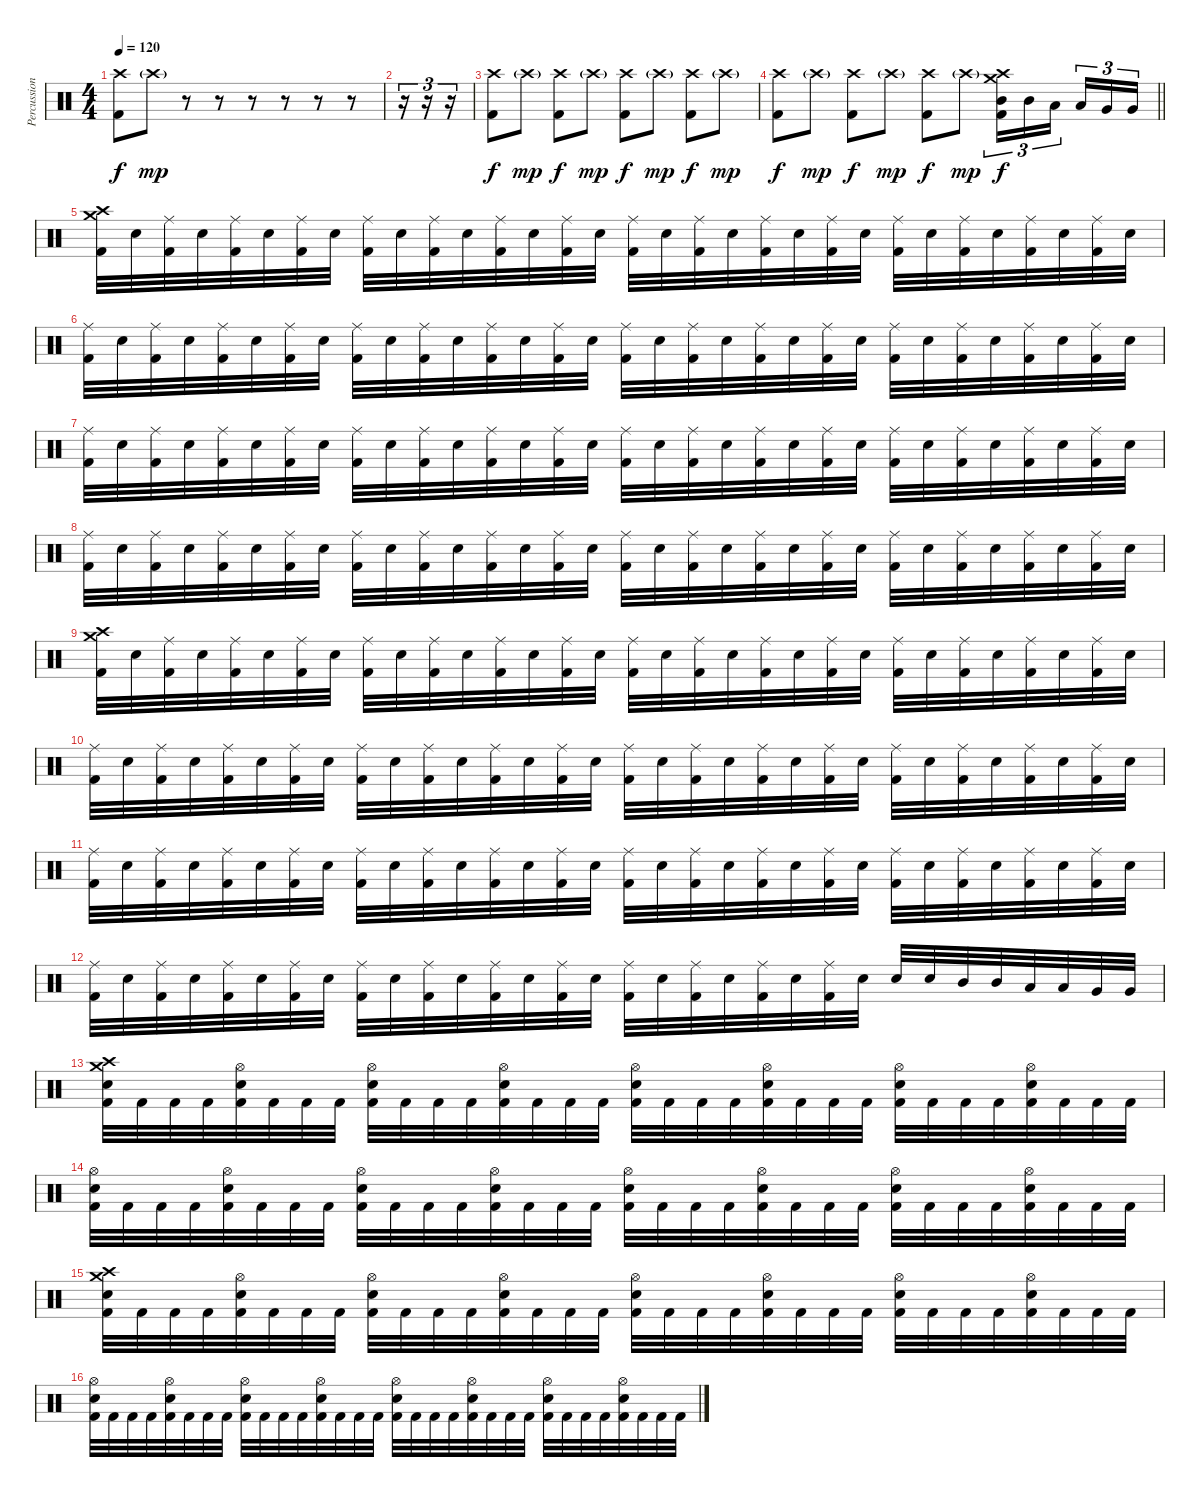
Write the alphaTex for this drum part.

\track ("Percussion" "Percussion") {instrument percussion}
\staff {score}
\articulation defaults
\ts (4 4)
\tempo 120
\clef neutral
\ks c
("Crash high (hit)" "Kick (hit) 2").8{dy f} "Crash high (hit)"{g}.8{dy mp} r.8 r.8 r.8 r.8 r.8 r.8 |
r.16{tu (3 2)} r.16{tu (3 2)} r.16{tu (3 2)} |
("Crash high (hit)" "Kick (hit) 2").8{dy f} "Crash high (hit)"{g}.8{dy mp} ("Crash high (hit)" "Kick (hit) 2").8{dy f} "Crash high (hit)"{g}.8{dy mp} ("Crash high (hit)" "Kick (hit) 2").8{dy f} "Crash high (hit)"{g}.8{dy mp} ("Crash high (hit)" "Kick (hit) 2").8{dy f} "Crash high (hit)"{g}.8{dy mp} |
\barLineRight lightlight
("Crash high (hit)" "Kick (hit) 2").8{dy f} "Crash high (hit)"{g}.8{dy mp} ("Crash high (hit)" "Kick (hit) 2").8{dy f} "Crash high (hit)"{g}.8{dy mp} ("Crash high (hit)" "Kick (hit) 2").8{dy f} "Crash high (hit)"{g}.8{dy mp} ("Crash medium (hit)" "Crash high (hit)" "Mid Tom (hit)" "Kick (hit) 2").16{tu (3 2) dy f} "Mid Tom (hit)".16{tu (3 2)} "Low Tom (hit)".16{tu (3 2) beam splitsecondary} "Low Tom (hit)".16{tu (3 2)} "Very Low Tom (hit)".16{tu (3 2)} "Very Low Tom (hit)".16{tu (3 2)} |
("Crash medium (hit)" "Crash high (hit)" "Kick (hit) 2").32 "Electric Snare (hit)".32 ("Ride (middle)" "Kick (hit) 2").32 "Electric Snare (hit)".32 ("Ride (middle)" "Kick (hit) 2").32 "Electric Snare (hit)".32 ("Ride (middle)" "Kick (hit) 2").32 "Electric Snare (hit)".32 ("Ride (middle)" "Kick (hit) 2").32 "Electric Snare (hit)".32 ("Ride (middle)" "Kick (hit) 2").32 "Electric Snare (hit)".32 ("Ride (middle)" "Kick (hit) 2").32 "Electric Snare (hit)".32 ("Ride (middle)" "Kick (hit) 2").32 "Electric Snare (hit)".32 ("Ride (middle)" "Kick (hit) 2").32 "Electric Snare (hit)".32 ("Ride (middle)" "Kick (hit) 2").32 "Electric Snare (hit)".32 ("Ride (middle)" "Kick (hit) 2").32 "Electric Snare (hit)".32 ("Ride (middle)" "Kick (hit) 2").32 "Electric Snare (hit)".32 ("Ride (middle)" "Kick (hit) 2").32 "Electric Snare (hit)".32 ("Ride (middle)" "Kick (hit) 2").32 "Electric Snare (hit)".32 ("Ride (middle)" "Kick (hit) 2").32 "Electric Snare (hit)".32 ("Ride (middle)" "Kick (hit) 2").32 "Electric Snare (hit)".32 |
("Ride (middle)" "Kick (hit) 2").32 "Electric Snare (hit)".32 ("Ride (middle)" "Kick (hit) 2").32 "Electric Snare (hit)".32 ("Ride (middle)" "Kick (hit) 2").32 "Electric Snare (hit)".32 ("Ride (middle)" "Kick (hit) 2").32 "Electric Snare (hit)".32 ("Ride (middle)" "Kick (hit) 2").32 "Electric Snare (hit)".32 ("Ride (middle)" "Kick (hit) 2").32 "Electric Snare (hit)".32 ("Ride (middle)" "Kick (hit) 2").32 "Electric Snare (hit)".32 ("Ride (middle)" "Kick (hit) 2").32 "Electric Snare (hit)".32 ("Ride (middle)" "Kick (hit) 2").32 "Electric Snare (hit)".32 ("Ride (middle)" "Kick (hit) 2").32 "Electric Snare (hit)".32 ("Ride (middle)" "Kick (hit) 2").32 "Electric Snare (hit)".32 ("Ride (middle)" "Kick (hit) 2").32 "Electric Snare (hit)".32 ("Ride (middle)" "Kick (hit) 2").32 "Electric Snare (hit)".32 ("Ride (middle)" "Kick (hit) 2").32 "Electric Snare (hit)".32 ("Ride (middle)" "Kick (hit) 2").32 "Electric Snare (hit)".32 ("Ride (middle)" "Kick (hit) 2").32 "Electric Snare (hit)".32 |
("Ride (middle)" "Kick (hit) 2").32 "Electric Snare (hit)".32 ("Ride (middle)" "Kick (hit) 2").32 "Electric Snare (hit)".32 ("Ride (middle)" "Kick (hit) 2").32 "Electric Snare (hit)".32 ("Ride (middle)" "Kick (hit) 2").32 "Electric Snare (hit)".32 ("Ride (middle)" "Kick (hit) 2").32 "Electric Snare (hit)".32 ("Ride (middle)" "Kick (hit) 2").32 "Electric Snare (hit)".32 ("Ride (middle)" "Kick (hit) 2").32 "Electric Snare (hit)".32 ("Ride (middle)" "Kick (hit) 2").32 "Electric Snare (hit)".32 ("Ride (middle)" "Kick (hit) 2").32 "Electric Snare (hit)".32 ("Ride (middle)" "Kick (hit) 2").32 "Electric Snare (hit)".32 ("Ride (middle)" "Kick (hit) 2").32 "Electric Snare (hit)".32 ("Ride (middle)" "Kick (hit) 2").32 "Electric Snare (hit)".32 ("Ride (middle)" "Kick (hit) 2").32 "Electric Snare (hit)".32 ("Ride (middle)" "Kick (hit) 2").32 "Electric Snare (hit)".32 ("Ride (middle)" "Kick (hit) 2").32 "Electric Snare (hit)".32 ("Ride (middle)" "Kick (hit) 2").32 "Electric Snare (hit)".32 |
("Ride (middle)" "Kick (hit) 2").32 "Electric Snare (hit)".32 ("Ride (middle)" "Kick (hit) 2").32 "Electric Snare (hit)".32 ("Ride (middle)" "Kick (hit) 2").32 "Electric Snare (hit)".32 ("Ride (middle)" "Kick (hit) 2").32 "Electric Snare (hit)".32 ("Ride (middle)" "Kick (hit) 2").32 "Electric Snare (hit)".32 ("Ride (middle)" "Kick (hit) 2").32 "Electric Snare (hit)".32 ("Ride (middle)" "Kick (hit) 2").32 "Electric Snare (hit)".32 ("Ride (middle)" "Kick (hit) 2").32 "Electric Snare (hit)".32 ("Ride (middle)" "Kick (hit) 2").32 "Electric Snare (hit)".32 ("Ride (middle)" "Kick (hit) 2").32 "Electric Snare (hit)".32 ("Ride (middle)" "Kick (hit) 2").32 "Electric Snare (hit)".32 ("Ride (middle)" "Kick (hit) 2").32 "Electric Snare (hit)".32 ("Ride (middle)" "Kick (hit) 2").32 "Electric Snare (hit)".32 ("Ride (middle)" "Kick (hit) 2").32 "Electric Snare (hit)".32 ("Ride (middle)" "Kick (hit) 2").32 "Electric Snare (hit)".32 ("Ride (middle)" "Kick (hit) 2").32 "Electric Snare (hit)".32 |
("Crash medium (hit)" "Crash high (hit)" "Kick (hit) 2").32 "Electric Snare (hit)".32 ("Ride (middle)" "Kick (hit) 2").32 "Electric Snare (hit)".32 ("Ride (middle)" "Kick (hit) 2").32 "Electric Snare (hit)".32 ("Ride (middle)" "Kick (hit) 2").32 "Electric Snare (hit)".32 ("Ride (middle)" "Kick (hit) 2").32 "Electric Snare (hit)".32 ("Ride (middle)" "Kick (hit) 2").32 "Electric Snare (hit)".32 ("Ride (middle)" "Kick (hit) 2").32 "Electric Snare (hit)".32 ("Ride (middle)" "Kick (hit) 2").32 "Electric Snare (hit)".32 ("Ride (middle)" "Kick (hit) 2").32 "Electric Snare (hit)".32 ("Ride (middle)" "Kick (hit) 2").32 "Electric Snare (hit)".32 ("Ride (middle)" "Kick (hit) 2").32 "Electric Snare (hit)".32 ("Ride (middle)" "Kick (hit) 2").32 "Electric Snare (hit)".32 ("Ride (middle)" "Kick (hit) 2").32 "Electric Snare (hit)".32 ("Ride (middle)" "Kick (hit) 2").32 "Electric Snare (hit)".32 ("Ride (middle)" "Kick (hit) 2").32 "Electric Snare (hit)".32 ("Ride (middle)" "Kick (hit) 2").32 "Electric Snare (hit)".32 |
("Ride (middle)" "Kick (hit) 2").32 "Electric Snare (hit)".32 ("Ride (middle)" "Kick (hit) 2").32 "Electric Snare (hit)".32 ("Ride (middle)" "Kick (hit) 2").32 "Electric Snare (hit)".32 ("Ride (middle)" "Kick (hit) 2").32 "Electric Snare (hit)".32 ("Ride (middle)" "Kick (hit) 2").32 "Electric Snare (hit)".32 ("Ride (middle)" "Kick (hit) 2").32 "Electric Snare (hit)".32 ("Ride (middle)" "Kick (hit) 2").32 "Electric Snare (hit)".32 ("Ride (middle)" "Kick (hit) 2").32 "Electric Snare (hit)".32 ("Ride (middle)" "Kick (hit) 2").32 "Electric Snare (hit)".32 ("Ride (middle)" "Kick (hit) 2").32 "Electric Snare (hit)".32 ("Ride (middle)" "Kick (hit) 2").32 "Electric Snare (hit)".32 ("Ride (middle)" "Kick (hit) 2").32 "Electric Snare (hit)".32 ("Ride (middle)" "Kick (hit) 2").32 "Electric Snare (hit)".32 ("Ride (middle)" "Kick (hit) 2").32 "Electric Snare (hit)".32 ("Ride (middle)" "Kick (hit) 2").32 "Electric Snare (hit)".32 ("Ride (middle)" "Kick (hit) 2").32 "Electric Snare (hit)".32 |
("Ride (middle)" "Kick (hit) 2").32 "Electric Snare (hit)".32 ("Ride (middle)" "Kick (hit) 2").32 "Electric Snare (hit)".32 ("Ride (middle)" "Kick (hit) 2").32 "Electric Snare (hit)".32 ("Ride (middle)" "Kick (hit) 2").32 "Electric Snare (hit)".32 ("Ride (middle)" "Kick (hit) 2").32 "Electric Snare (hit)".32 ("Ride (middle)" "Kick (hit) 2").32 "Electric Snare (hit)".32 ("Ride (middle)" "Kick (hit) 2").32 "Electric Snare (hit)".32 ("Ride (middle)" "Kick (hit) 2").32 "Electric Snare (hit)".32 ("Ride (middle)" "Kick (hit) 2").32 "Electric Snare (hit)".32 ("Ride (middle)" "Kick (hit) 2").32 "Electric Snare (hit)".32 ("Ride (middle)" "Kick (hit) 2").32 "Electric Snare (hit)".32 ("Ride (middle)" "Kick (hit) 2").32 "Electric Snare (hit)".32 ("Ride (middle)" "Kick (hit) 2").32 "Electric Snare (hit)".32 ("Ride (middle)" "Kick (hit) 2").32 "Electric Snare (hit)".32 ("Ride (middle)" "Kick (hit) 2").32 "Electric Snare (hit)".32 ("Ride (middle)" "Kick (hit) 2").32 "Electric Snare (hit)".32 |
("Ride (middle)" "Kick (hit) 2").32 "Electric Snare (hit)".32 ("Ride (middle)" "Kick (hit) 2").32 "Electric Snare (hit)".32 ("Ride (middle)" "Kick (hit) 2").32 "Electric Snare (hit)".32 ("Ride (middle)" "Kick (hit) 2").32 "Electric Snare (hit)".32 ("Ride (middle)" "Kick (hit) 2").32 "Electric Snare (hit)".32 ("Ride (middle)" "Kick (hit) 2").32 "Electric Snare (hit)".32 ("Ride (middle)" "Kick (hit) 2").32 "Electric Snare (hit)".32 ("Ride (middle)" "Kick (hit) 2").32 "Electric Snare (hit)".32 ("Ride (middle)" "Kick (hit) 2").32 "Electric Snare (hit)".32 ("Ride (middle)" "Kick (hit) 2").32 "Electric Snare (hit)".32 ("Ride (middle)" "Kick (hit) 2").32 "Electric Snare (hit)".32 ("Ride (middle)" "Kick (hit) 2").32 "Electric Snare (hit)".32 "Electric Snare (hit)".32 "Electric Snare (hit)".32 "Mid Tom (hit)".32 "Mid Tom (hit)".32 "Low Tom (hit)".32 "Low Tom (hit)".32 "Very Low Tom (hit)".32 "Very Low Tom (hit)".32 |
("Crash medium (hit)" "Crash high (hit)" "Electric Snare (hit)" "Kick (hit) 2").32 "Kick (hit) 2".32 "Kick (hit) 2".32 "Kick (hit) 2".32 ("Hi-Hat (open)" "Electric Snare (hit)" "Kick (hit) 2").32 "Kick (hit) 2".32 "Kick (hit) 2".32 "Kick (hit) 2".32 ("Hi-Hat (open)" "Electric Snare (hit)" "Kick (hit) 2").32 "Kick (hit) 2".32 "Kick (hit) 2".32 "Kick (hit) 2".32 ("Hi-Hat (open)" "Electric Snare (hit)" "Kick (hit) 2").32 "Kick (hit) 2".32 "Kick (hit) 2".32 "Kick (hit) 2".32 ("Hi-Hat (open)" "Electric Snare (hit)" "Kick (hit) 2").32 "Kick (hit) 2".32 "Kick (hit) 2".32 "Kick (hit) 2".32 ("Hi-Hat (open)" "Electric Snare (hit)" "Kick (hit) 2").32 "Kick (hit) 2".32 "Kick (hit) 2".32 "Kick (hit) 2".32 ("Hi-Hat (open)" "Electric Snare (hit)" "Kick (hit) 2").32 "Kick (hit) 2".32 "Kick (hit) 2".32 "Kick (hit) 2".32 ("Hi-Hat (open)" "Electric Snare (hit)" "Kick (hit) 2").32 "Kick (hit) 2".32 "Kick (hit) 2".32 "Kick (hit) 2".32 |
("Hi-Hat (open)" "Electric Snare (hit)" "Kick (hit) 2").32 "Kick (hit) 2".32 "Kick (hit) 2".32 "Kick (hit) 2".32 ("Hi-Hat (open)" "Electric Snare (hit)" "Kick (hit) 2").32 "Kick (hit) 2".32 "Kick (hit) 2".32 "Kick (hit) 2".32 ("Hi-Hat (open)" "Electric Snare (hit)" "Kick (hit) 2").32 "Kick (hit) 2".32 "Kick (hit) 2".32 "Kick (hit) 2".32 ("Hi-Hat (open)" "Electric Snare (hit)" "Kick (hit) 2").32 "Kick (hit) 2".32 "Kick (hit) 2".32 "Kick (hit) 2".32 ("Hi-Hat (open)" "Electric Snare (hit)" "Kick (hit) 2").32 "Kick (hit) 2".32 "Kick (hit) 2".32 "Kick (hit) 2".32 ("Hi-Hat (open)" "Electric Snare (hit)" "Kick (hit) 2").32 "Kick (hit) 2".32 "Kick (hit) 2".32 "Kick (hit) 2".32 ("Hi-Hat (open)" "Electric Snare (hit)" "Kick (hit) 2").32 "Kick (hit) 2".32 "Kick (hit) 2".32 "Kick (hit) 2".32 ("Hi-Hat (open)" "Electric Snare (hit)" "Kick (hit) 2").32 "Kick (hit) 2".32 "Kick (hit) 2".32 "Kick (hit) 2".32 |
("Crash medium (hit)" "Crash high (hit)" "Electric Snare (hit)" "Kick (hit) 2").32 "Kick (hit) 2".32 "Kick (hit) 2".32 "Kick (hit) 2".32 ("Hi-Hat (open)" "Electric Snare (hit)" "Kick (hit) 2").32 "Kick (hit) 2".32 "Kick (hit) 2".32 "Kick (hit) 2".32 ("Hi-Hat (open)" "Electric Snare (hit)" "Kick (hit) 2").32 "Kick (hit) 2".32 "Kick (hit) 2".32 "Kick (hit) 2".32 ("Hi-Hat (open)" "Electric Snare (hit)" "Kick (hit) 2").32 "Kick (hit) 2".32 "Kick (hit) 2".32 "Kick (hit) 2".32 ("Hi-Hat (open)" "Electric Snare (hit)" "Kick (hit) 2").32 "Kick (hit) 2".32 "Kick (hit) 2".32 "Kick (hit) 2".32 ("Hi-Hat (open)" "Electric Snare (hit)" "Kick (hit) 2").32 "Kick (hit) 2".32 "Kick (hit) 2".32 "Kick (hit) 2".32 ("Hi-Hat (open)" "Electric Snare (hit)" "Kick (hit) 2").32 "Kick (hit) 2".32 "Kick (hit) 2".32 "Kick (hit) 2".32 ("Hi-Hat (open)" "Electric Snare (hit)" "Kick (hit) 2").32 "Kick (hit) 2".32 "Kick (hit) 2".32 "Kick (hit) 2".32 |
("Hi-Hat (open)" "Electric Snare (hit)" "Kick (hit) 2").32 "Kick (hit) 2".32 "Kick (hit) 2".32 "Kick (hit) 2".32 ("Hi-Hat (open)" "Electric Snare (hit)" "Kick (hit) 2").32 "Kick (hit) 2".32 "Kick (hit) 2".32 "Kick (hit) 2".32 ("Hi-Hat (open)" "Electric Snare (hit)" "Kick (hit) 2").32 "Kick (hit) 2".32 "Kick (hit) 2".32 "Kick (hit) 2".32 ("Hi-Hat (open)" "Electric Snare (hit)" "Kick (hit) 2").32 "Kick (hit) 2".32 "Kick (hit) 2".32 "Kick (hit) 2".32 ("Hi-Hat (open)" "Electric Snare (hit)" "Kick (hit) 2").32 "Kick (hit) 2".32 "Kick (hit) 2".32 "Kick (hit) 2".32 ("Hi-Hat (open)" "Electric Snare (hit)" "Kick (hit) 2").32 "Kick (hit) 2".32 "Kick (hit) 2".32 "Kick (hit) 2".32 ("Hi-Hat (open)" "Electric Snare (hit)" "Kick (hit) 2").32 "Kick (hit) 2".32 "Kick (hit) 2".32 "Kick (hit) 2".32 ("Hi-Hat (open)" "Electric Snare (hit)" "Kick (hit) 2").32 "Kick (hit) 2".32 "Kick (hit) 2".32 "Kick (hit) 2".32
